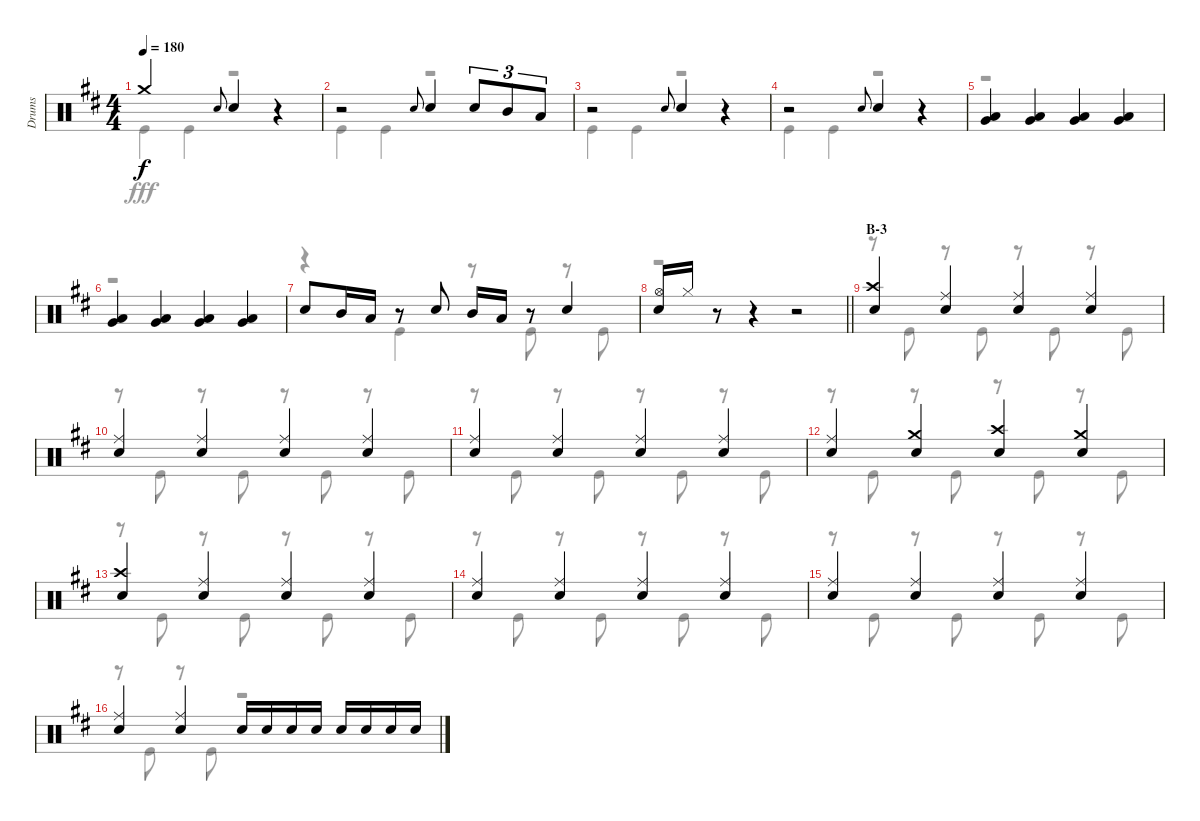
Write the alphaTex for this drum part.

\track ("Drums" "Drums") {instrument percussion}
\staff {score}
\articulation defaults
\voice
\ts (4 4)
\tempo 180
\clef neutral
\ks d "Crash medium (hit)".2{dy f} "Snare (hit) 2".8{gr onbeat} "Snare (hit) 2".4
r.4 |
r.2 "Snare (hit) 2".8{gr onbeat} "Snare (hit) 2".4 "Snare (hit) 2".8{tu (3 2)} "Mid Tom (hit)".8{tu (3 2)} "Low Tom (hit)".8{tu (3 2)} |
r.2 "Snare (hit) 2".8{gr onbeat} "Snare (hit) 2".4 r.4 |
r.2 "Snare (hit) 2".8{gr onbeat} "Snare (hit) 2".4 r.4 |
("Low Tom (hit)" "Very Low Tom (hit)").4 ("Low Tom (hit)" "Very Low Tom (hit)").4 ("Low Tom (hit)" "Very Low Tom (hit)").4 ("Low Tom (hit)" "Very Low Tom (hit)").4 |
("Low Tom (hit)" "Very Low Tom (hit)").4 ("Low Tom (hit)" "Very Low Tom (hit)").4 ("Low Tom (hit)" "Very Low Tom (hit)").4 ("Low Tom (hit)" "Very Low Tom (hit)").4 |
"Snare (hit) 2".8 "Mid Tom (hit)".16 "Low Tom (hit)".16 r.8 "Snare (hit) 2".8 "Mid Tom (hit)".16 "Low Tom (hit)".16 r.8 "Snare (hit) 2".4 |
\barLineRight lightlight
("Hi-Hat (open)" "Snare (hit) 2").16 "Hi-Hat (closed)".16 r.8 r.4 r.2 |
\section ("" "B-3")
("Crash high (hit)" "Snare (hit) 2").4 ("Ride (middle)" "Snare (hit) 2").4 ("Ride (middle)" "Snare (hit) 2").4 ("Ride (middle)" "Snare (hit) 2").4 |
("Ride (middle)" "Snare (hit) 2").4 ("Ride (middle)" "Snare (hit) 2").4 ("Ride (middle)" "Snare (hit) 2").4 ("Ride (middle)" "Snare (hit) 2").4 |
("Ride (middle)" "Snare (hit) 2").4 ("Ride (middle)" "Snare (hit) 2").4 ("Ride (middle)" "Snare (hit) 2").4 ("Ride (middle)" "Snare (hit) 2").4 |
("Ride (middle)" "Snare (hit) 2").4 ("Crash medium (hit)" "Snare (hit) 2").4 ("Crash high (hit)" "Snare (hit) 2").4 ("Crash medium (hit)" "Snare (hit) 2").4 |
("Crash high (hit)" "Snare (hit) 2").4 ("Ride (middle)" "Snare (hit) 2").4 ("Ride (middle)" "Snare (hit) 2").4 ("Ride (middle)" "Snare (hit) 2").4 |
("Ride (middle)" "Snare (hit) 2").4 ("Ride (middle)" "Snare (hit) 2").4 ("Ride (middle)" "Snare (hit) 2").4 ("Ride (middle)" "Snare (hit) 2").4 |
("Ride (middle)" "Snare (hit) 2").4 ("Ride (middle)" "Snare (hit) 2").4 ("Ride (middle)" "Snare (hit) 2").4 ("Ride (middle)" "Snare (hit) 2").4 |
("Ride (middle)" "Snare (hit) 2").4 ("Ride (middle)" "Snare (hit) 2").4 "Snare (hit) 2".16 "Snare (hit) 2".16 "Snare (hit) 2".16 "Snare (hit) 2".16 "Snare (hit) 2".16 "Snare (hit) 2".16 "Snare (hit) 2".16 "Snare (hit) 2".16
\voice
\clef neutral
\ottava regular
\simile none
\ks d "Kick (hit)".4{dy fff} "Kick (hit)".4
r.2 |
"Kick (hit)".4 "Kick (hit)".4 r.2 |
"Kick (hit)".4 "Kick (hit)".4 r.2 |
"Kick (hit)".4 "Kick (hit)".4 r.2 |
r.1 |
r.1 |
r.4 "Kick (hit)".4 r.8 "Kick (hit)".8 r.8 "Kick (hit)".8 |
\barLineRight lightlight
r.1 |
r.8 "Kick (hit)".8 r.8 "Kick (hit)".8 r.8 "Kick (hit)".8 r.8 "Kick (hit)".8 |
r.8 "Kick (hit)".8 r.8 "Kick (hit)".8 r.8 "Kick (hit)".8 r.8 "Kick (hit)".8 |
r.8 "Kick (hit)".8 r.8 "Kick (hit)".8 r.8 "Kick (hit)".8 r.8 "Kick (hit)".8 |
r.8 "Kick (hit)".8 r.8 "Kick (hit)".8 r.8 "Kick (hit)".8 r.8 "Kick (hit)".8 |
r.8 "Kick (hit)".8 r.8 "Kick (hit)".8 r.8 "Kick (hit)".8 r.8 "Kick (hit)".8 |
r.8 "Kick (hit)".8 r.8 "Kick (hit)".8 r.8 "Kick (hit)".8 r.8 "Kick (hit)".8 |
r.8 "Kick (hit)".8 r.8 "Kick (hit)".8 r.8 "Kick (hit)".8 r.8 "Kick (hit)".8 |
r.8 "Kick (hit)".8 r.8 "Kick (hit)".8 r.2
